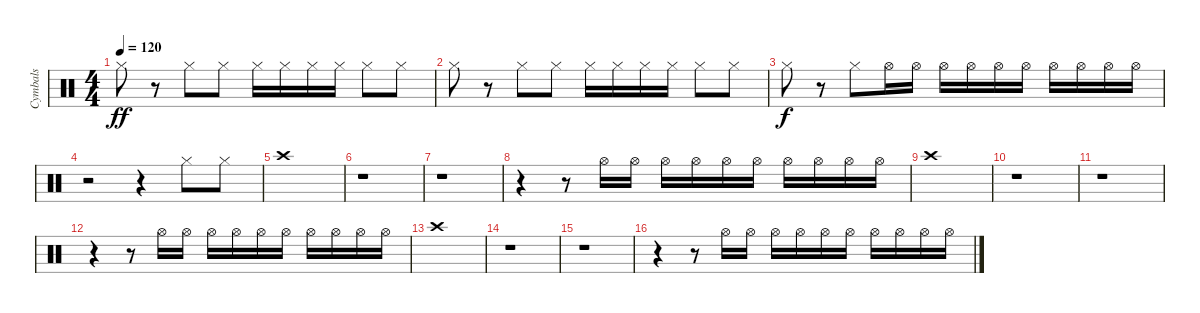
\track ("Cymbals" "Cymbals") {instrument percussion}
\staff {score}
\articulation defaults
\ts (4 4)
\tempo 120
\clef neutral
\ks c "Hi-Hat (closed)".8{dy ff}
r.8 "Hi-Hat (closed)".8 "Hi-Hat (closed)".8 "Hi-Hat (closed)".16 "Hi-Hat (closed)".16 "Hi-Hat (closed)".16 "Hi-Hat (closed)".16 "Hi-Hat (closed)".8 "Hi-Hat (closed)".8 |
"Hi-Hat (closed)".8 r.8 "Hi-Hat (closed)".8 "Hi-Hat (closed)".8 "Hi-Hat (closed)".16 "Hi-Hat (closed)".16 "Hi-Hat (closed)".16 "Hi-Hat (closed)".16 "Hi-Hat (closed)".8 "Hi-Hat (closed)".8 |
"Hi-Hat (closed)".8{dy f} r.8 "Hi-Hat (closed)".8 "Hi-Hat (open)".16 "Hi-Hat (open)".16 "Hi-Hat (open)".16 "Hi-Hat (open)".16 "Hi-Hat (open)".16 "Hi-Hat (open)".16 "Hi-Hat (open)".16 "Hi-Hat (open)".16 "Hi-Hat (open)".16 "Hi-Hat (open)".16 |
r.2 r.4 "Hi-Hat (closed)".8 "Hi-Hat (closed)".8 |
"Crash high (hit)".1 |
r.1 |
r.1 |
r.4 r.8 "Hi-Hat (open)".16 "Hi-Hat (open)".16 "Hi-Hat (open)".16 "Hi-Hat (open)".16 "Hi-Hat (open)".16 "Hi-Hat (open)".16 "Hi-Hat (open)".16 "Hi-Hat (open)".16 "Hi-Hat (open)".16 "Hi-Hat (open)".16 |
"Crash high (hit)".1 |
r.1 |
r.1 |
r.4 r.8 "Hi-Hat (open)".16 "Hi-Hat (open)".16 "Hi-Hat (open)".16 "Hi-Hat (open)".16 "Hi-Hat (open)".16 "Hi-Hat (open)".16 "Hi-Hat (open)".16 "Hi-Hat (open)".16 "Hi-Hat (open)".16 "Hi-Hat (open)".16 |
"Crash high (hit)".1 |
r.1 |
r.1 |
r.4 r.8 "Hi-Hat (open)".16 "Hi-Hat (open)".16 "Hi-Hat (open)".16 "Hi-Hat (open)".16 "Hi-Hat (open)".16 "Hi-Hat (open)".16 "Hi-Hat (open)".16 "Hi-Hat (open)".16 "Hi-Hat (open)".16 "Hi-Hat (open)".16
